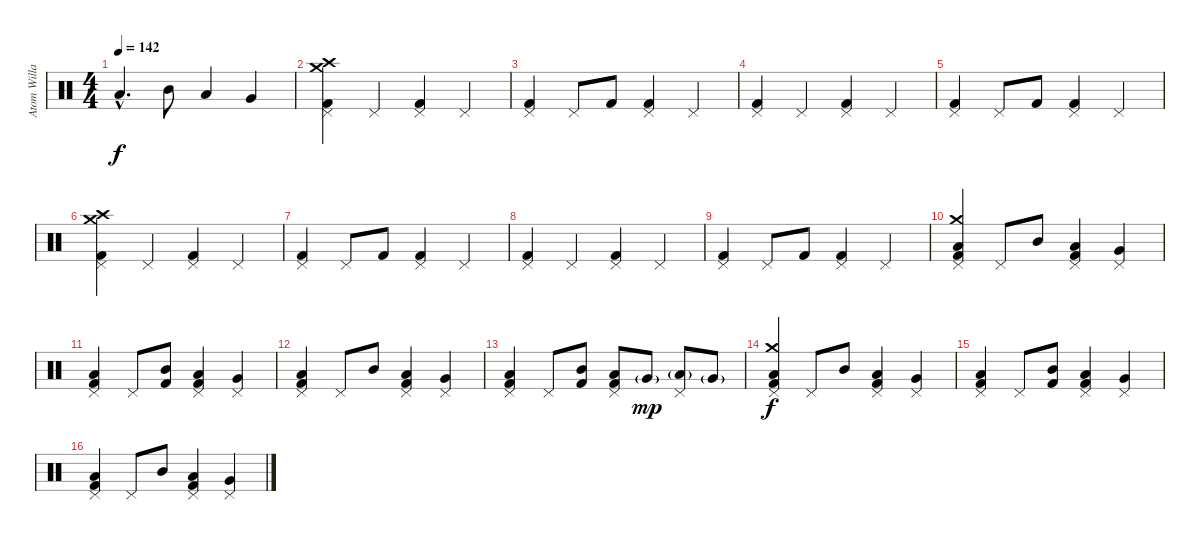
\track ("Atom Willard" "Atom Willa") {instrument percussion}
\staff {score}
\articulation defaults
\ts (4 4)
\tempo 142
\clef neutral
\ks c "Low Tom (hit)"{hac}.4{d dy f} "Mid Tom (hit)".8 "Low Tom (hit)".4 "Very Low Tom (hit)".4
|
("Crash high (hit)" "Crash medium (hit)" "Pedal Hi-Hat (hit)" "Kick (hit) 2").4 "Pedal Hi-Hat (hit)".4 ("Pedal Hi-Hat (hit)" "Kick (hit) 2").4 "Pedal Hi-Hat (hit)".4 |
("Pedal Hi-Hat (hit)" "Kick (hit) 2").4 "Pedal Hi-Hat (hit)".8 "Kick (hit) 2".8 ("Pedal Hi-Hat (hit)" "Kick (hit) 2").4 "Pedal Hi-Hat (hit)".4 |
("Pedal Hi-Hat (hit)" "Kick (hit) 2").4 "Pedal Hi-Hat (hit)".4 ("Pedal Hi-Hat (hit)" "Kick (hit) 2").4 "Pedal Hi-Hat (hit)".4 |
("Pedal Hi-Hat (hit)" "Kick (hit) 2").4 "Pedal Hi-Hat (hit)".8 "Kick (hit) 2".8 ("Pedal Hi-Hat (hit)" "Kick (hit) 2").4 "Pedal Hi-Hat (hit)".4 |
("Crash high (hit)" "Crash medium (hit)" "Pedal Hi-Hat (hit)" "Kick (hit) 2").4 "Pedal Hi-Hat (hit)".4 ("Pedal Hi-Hat (hit)" "Kick (hit) 2").4 "Pedal Hi-Hat (hit)".4 |
("Pedal Hi-Hat (hit)" "Kick (hit) 2").4 "Pedal Hi-Hat (hit)".8 "Kick (hit) 2".8 ("Pedal Hi-Hat (hit)" "Kick (hit) 2").4 "Pedal Hi-Hat (hit)".4 |
("Pedal Hi-Hat (hit)" "Kick (hit) 2").4 "Pedal Hi-Hat (hit)".4 ("Pedal Hi-Hat (hit)" "Kick (hit) 2").4 "Pedal Hi-Hat (hit)".4 |
("Pedal Hi-Hat (hit)" "Kick (hit) 2").4 "Pedal Hi-Hat (hit)".8 "Kick (hit) 2".8 ("Pedal Hi-Hat (hit)" "Kick (hit) 2").4 "Pedal Hi-Hat (hit)".4 |
("Crash medium (hit)" "Pedal Hi-Hat (hit)" "Low Tom (hit)" "Kick (hit) 2").4 "Pedal Hi-Hat (hit)".8 "Mid Tom (hit)".8 ("Pedal Hi-Hat (hit)" "Low Tom (hit)" "Kick (hit) 2").4 ("Pedal Hi-Hat (hit)" "Very Low Tom (hit)").4 |
("Pedal Hi-Hat (hit)" "Low Tom (hit)" "Kick (hit) 2").4 "Pedal Hi-Hat (hit)".8 ("Mid Tom (hit)" "Kick (hit) 2").8 ("Pedal Hi-Hat (hit)" "Low Tom (hit)" "Kick (hit) 2").4 ("Pedal Hi-Hat (hit)" "Very Low Tom (hit)").4 |
("Pedal Hi-Hat (hit)" "Low Tom (hit)" "Kick (hit) 2").4 "Pedal Hi-Hat (hit)".8 "Mid Tom (hit)".8 ("Pedal Hi-Hat (hit)" "Low Tom (hit)" "Kick (hit) 2").4 ("Pedal Hi-Hat (hit)" "Very Low Tom (hit)").4 |
("Pedal Hi-Hat (hit)" "Low Tom (hit)" "Kick (hit) 2").4 "Pedal Hi-Hat (hit)".8 ("Mid Tom (hit)" "Kick (hit) 2").8 ("Pedal Hi-Hat (hit)" "Low Tom (hit)" "Kick (hit) 2").8 "Very Low Tom (hit)"{g}.8{dy mp} ("Pedal Hi-Hat (hit)" "Low Tom (hit)"{g}).8 "Very Low Tom (hit)"{g}.8 |
("Crash medium (hit)" "Pedal Hi-Hat (hit)" "Low Tom (hit)" "Kick (hit) 2").4{dy f} "Pedal Hi-Hat (hit)".8 "Mid Tom (hit)".8 ("Pedal Hi-Hat (hit)" "Low Tom (hit)" "Kick (hit) 2").4 ("Pedal Hi-Hat (hit)" "Very Low Tom (hit)").4 |
("Pedal Hi-Hat (hit)" "Low Tom (hit)" "Kick (hit) 2").4 "Pedal Hi-Hat (hit)".8 ("Mid Tom (hit)" "Kick (hit) 2").8 ("Pedal Hi-Hat (hit)" "Low Tom (hit)" "Kick (hit) 2").4 ("Pedal Hi-Hat (hit)" "Very Low Tom (hit)").4 |
("Pedal Hi-Hat (hit)" "Low Tom (hit)" "Kick (hit) 2").4 "Pedal Hi-Hat (hit)".8 "Mid Tom (hit)".8 ("Pedal Hi-Hat (hit)" "Low Tom (hit)" "Kick (hit) 2").4 ("Pedal Hi-Hat (hit)" "Very Low Tom (hit)").4
